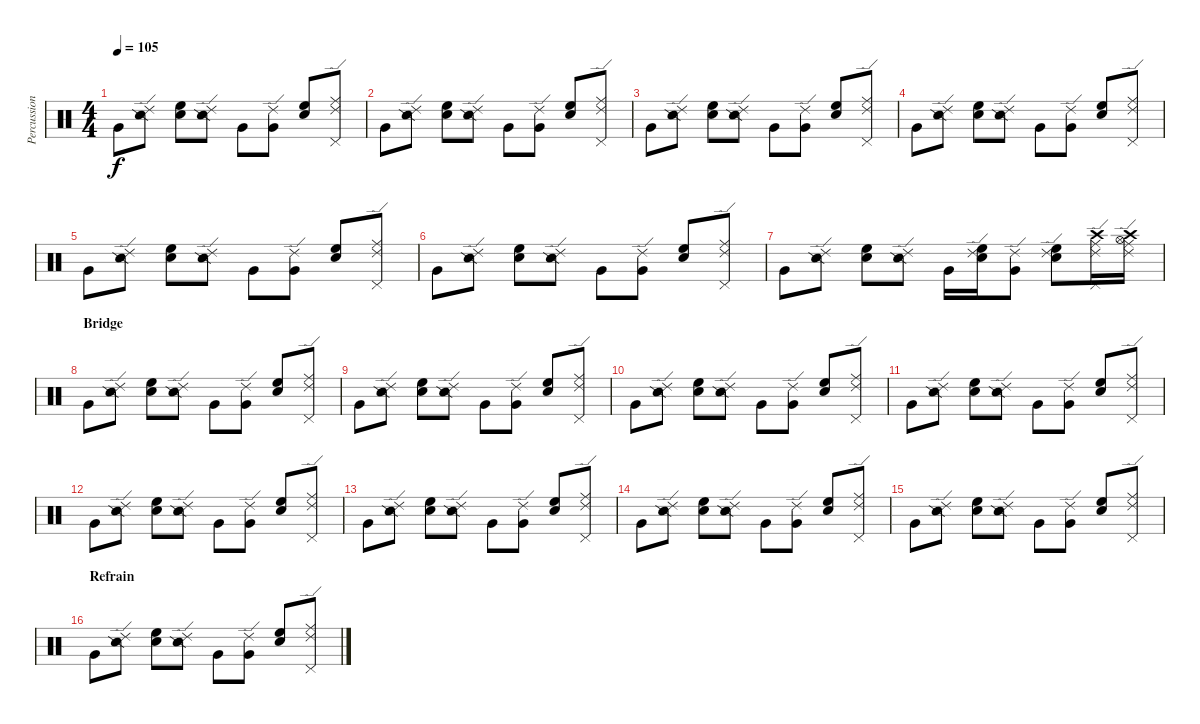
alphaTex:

\track ("Percussions" "Percussion") {instrument percussion}
\staff {score}
\articulation defaults
\ts (4 4)
\tempo 105
\clef neutral
\ks c "Very Low Tom (hit)".8{dy f}
("Ride (edge) 2" "Snare (side stick) 2").8 ("Hand Clap (hit)" "High Floor Tom (hit)").8 ("Ride (edge) 2" "Snare (side stick) 2").8 "Very Low Tom (hit)".8 ("Ride (edge) 2" "Very Low Tom (hit)").8 ("Hand Clap (hit)" "High Floor Tom (hit)").8 ("Ride (edge) 2" "Ride (middle)" "Pedal Hi-Hat (hit)").8 |
"Very Low Tom (hit)".8 ("Ride (edge) 2" "Snare (side stick) 2").8 ("Hand Clap (hit)" "High Floor Tom (hit)").8 ("Ride (edge) 2" "Snare (side stick) 2").8 "Very Low Tom (hit)".8 ("Ride (edge) 2" "Very Low Tom (hit)").8 ("Hand Clap (hit)" "High Floor Tom (hit)").8 ("Ride (edge) 2" "Ride (middle)" "Pedal Hi-Hat (hit)").8 |
"Very Low Tom (hit)".8 ("Ride (edge) 2" "Snare (side stick) 2").8 ("Hand Clap (hit)" "High Floor Tom (hit)").8 ("Ride (edge) 2" "Snare (side stick) 2").8 "Very Low Tom (hit)".8 ("Ride (edge) 2" "Very Low Tom (hit)").8 ("Hand Clap (hit)" "High Floor Tom (hit)").8 ("Ride (edge) 2" "Ride (middle)" "Pedal Hi-Hat (hit)").8 |
"Very Low Tom (hit)".8 ("Ride (edge) 2" "Snare (side stick) 2").8 ("Hand Clap (hit)" "High Floor Tom (hit)").8 ("Ride (edge) 2" "Snare (side stick) 2").8 "Very Low Tom (hit)".8 ("Ride (edge) 2" "Very Low Tom (hit)").8 ("Hand Clap (hit)" "High Floor Tom (hit)").8 ("Ride (edge) 2" "Ride (middle)" "Pedal Hi-Hat (hit)").8 |
"Very Low Tom (hit)".8 ("Ride (edge) 2" "Snare (side stick) 2").8 ("Hand Clap (hit)" "High Floor Tom (hit)").8 ("Ride (edge) 2" "Snare (side stick) 2").8 "Very Low Tom (hit)".8 ("Ride (edge) 2" "Very Low Tom (hit)").8 ("Hand Clap (hit)" "High Floor Tom (hit)").8 ("Ride (edge) 2" "Ride (middle)" "Pedal Hi-Hat (hit)").8 |
"Very Low Tom (hit)".8 ("Ride (edge) 2" "Snare (side stick) 2").8 ("Hand Clap (hit)" "High Floor Tom (hit)").8 ("Ride (edge) 2" "Snare (side stick) 2").8 "Very Low Tom (hit)".8 ("Ride (edge) 2" "Very Low Tom (hit)").8 ("Hand Clap (hit)" "High Floor Tom (hit)").8 ("Ride (edge) 2" "Ride (middle)" "Pedal Hi-Hat (hit)").8 |
"Very Low Tom (hit)".8 ("Ride (edge) 2" "Snare (side stick) 2").8 ("Hand Clap (hit)" "High Floor Tom (hit)").8 ("Ride (edge) 2" "Snare (side stick) 2").8 "Very Low Tom (hit)".16 ("Ride (edge) 2" "Hand Clap (hit)" "High Floor Tom (hit)").16 ("Ride (edge) 2" "Very Low Tom (hit)").8 ("Ride (edge) 2" "Hand Clap (hit)" "High Floor Tom (hit)").8 ("Ride (edge) 2" "Pedal Hi-Hat (hit)" "Ride (middle)" "Crash high (hit)").16 ("Ride (edge) 2" "Hi-Hat (open)" "Ride (middle)" "Crash high (hit)").16 |
\section ("" "Bridge")
"Very Low Tom (hit)".8 ("Ride (edge) 2" "Snare (side stick) 2").8 ("Hand Clap (hit)" "High Floor Tom (hit)").8 ("Ride (edge) 2" "Snare (side stick) 2").8 "Very Low Tom (hit)".8 ("Ride (edge) 2" "Very Low Tom (hit)").8 ("Hand Clap (hit)" "High Floor Tom (hit)").8 ("Ride (edge) 2" "Ride (middle)" "Pedal Hi-Hat (hit)").8 |
"Very Low Tom (hit)".8 ("Ride (edge) 2" "Snare (side stick) 2").8 ("Hand Clap (hit)" "High Floor Tom (hit)").8 ("Ride (edge) 2" "Snare (side stick) 2").8 "Very Low Tom (hit)".8 ("Ride (edge) 2" "Very Low Tom (hit)").8 ("Hand Clap (hit)" "High Floor Tom (hit)").8 ("Ride (edge) 2" "Ride (middle)" "Pedal Hi-Hat (hit)").8 |
"Very Low Tom (hit)".8 ("Ride (edge) 2" "Snare (side stick) 2").8 ("Hand Clap (hit)" "High Floor Tom (hit)").8 ("Ride (edge) 2" "Snare (side stick) 2").8 "Very Low Tom (hit)".8 ("Ride (edge) 2" "Very Low Tom (hit)").8 ("Hand Clap (hit)" "High Floor Tom (hit)").8 ("Ride (edge) 2" "Ride (middle)" "Pedal Hi-Hat (hit)").8 |
"Very Low Tom (hit)".8 ("Ride (edge) 2" "Snare (side stick) 2").8 ("Hand Clap (hit)" "High Floor Tom (hit)").8 ("Ride (edge) 2" "Snare (side stick) 2").8 "Very Low Tom (hit)".8 ("Ride (edge) 2" "Very Low Tom (hit)").8 ("Hand Clap (hit)" "High Floor Tom (hit)").8 ("Ride (edge) 2" "Ride (middle)" "Pedal Hi-Hat (hit)").8 |
"Very Low Tom (hit)".8 ("Ride (edge) 2" "Snare (side stick) 2").8 ("Hand Clap (hit)" "High Floor Tom (hit)").8 ("Ride (edge) 2" "Snare (side stick) 2").8 "Very Low Tom (hit)".8 ("Ride (edge) 2" "Very Low Tom (hit)").8 ("Hand Clap (hit)" "High Floor Tom (hit)").8 ("Ride (edge) 2" "Ride (middle)" "Pedal Hi-Hat (hit)").8 |
"Very Low Tom (hit)".8 ("Ride (edge) 2" "Snare (side stick) 2").8 ("Hand Clap (hit)" "High Floor Tom (hit)").8 ("Ride (edge) 2" "Snare (side stick) 2").8 "Very Low Tom (hit)".8 ("Ride (edge) 2" "Very Low Tom (hit)").8 ("Hand Clap (hit)" "High Floor Tom (hit)").8 ("Ride (edge) 2" "Ride (middle)" "Pedal Hi-Hat (hit)").8 |
"Very Low Tom (hit)".8 ("Ride (edge) 2" "Snare (side stick) 2").8 ("Hand Clap (hit)" "High Floor Tom (hit)").8 ("Ride (edge) 2" "Snare (side stick) 2").8 "Very Low Tom (hit)".8 ("Ride (edge) 2" "Very Low Tom (hit)").8 ("Hand Clap (hit)" "High Floor Tom (hit)").8 ("Ride (edge) 2" "Ride (middle)" "Pedal Hi-Hat (hit)").8 |
"Very Low Tom (hit)".8 ("Ride (edge) 2" "Snare (side stick) 2").8 ("Hand Clap (hit)" "High Floor Tom (hit)").8 ("Ride (edge) 2" "Snare (side stick) 2").8 "Very Low Tom (hit)".8 ("Ride (edge) 2" "Very Low Tom (hit)").8 ("Hand Clap (hit)" "High Floor Tom (hit)").8 ("Ride (edge) 2" "Ride (middle)" "Pedal Hi-Hat (hit)").8 |
\section ("" "Refrain")
"Very Low Tom (hit)".8 ("Ride (edge) 2" "Snare (side stick) 2").8 ("Hand Clap (hit)" "High Floor Tom (hit)").8 ("Ride (edge) 2" "Snare (side stick) 2").8 "Very Low Tom (hit)".8 ("Ride (edge) 2" "Very Low Tom (hit)").8 ("Hand Clap (hit)" "High Floor Tom (hit)").8 ("Ride (edge) 2" "Ride (middle)" "Pedal Hi-Hat (hit)").8
